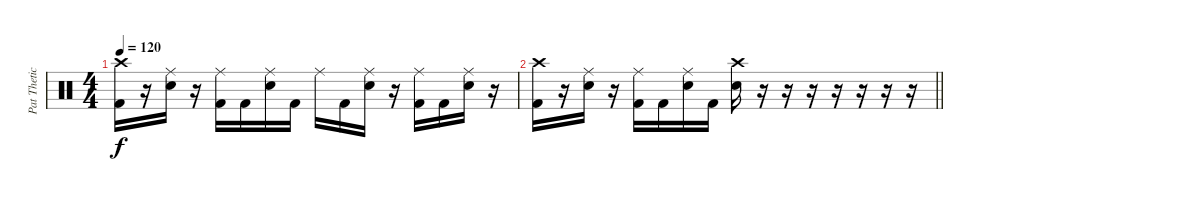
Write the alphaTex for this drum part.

\track ("Pat Thetic" "Pat Thetic") {instrument percussion}
\staff {score}
\articulation defaults
\ts (4 4)
\tempo 120
\clef neutral
\ks c
("Crash high (hit)" "Kick (hit) 2").16{dy f} r.16 ("Ride (middle)" "Snare (hit) 2").16 r.16 ("Ride (middle)" "Kick (hit) 2").16 "Kick (hit) 2".16 ("Ride (middle)" "Snare (hit) 2").16 "Kick (hit) 2".16 "Ride (middle)".16 "Kick (hit) 2".16 ("Ride (middle)" "Snare (hit) 2").16 r.16 ("Ride (middle)" "Kick (hit) 2").16 "Kick (hit) 2".16 ("Ride (middle)" "Snare (hit) 2").16 r.16 |
\barLineRight lightlight
("Crash high (hit)" "Kick (hit) 2").16 r.16 ("Ride (middle)" "Snare (hit) 2").16 r.16 ("Ride (middle)" "Kick (hit) 2").16 "Kick (hit) 2".16 ("Ride (middle)" "Snare (hit) 2").16 "Kick (hit) 2".16 ("Crash high (hit)" "Snare (hit) 2").16 r.16 r.16 r.16 r.16 r.16 r.16 r.16
